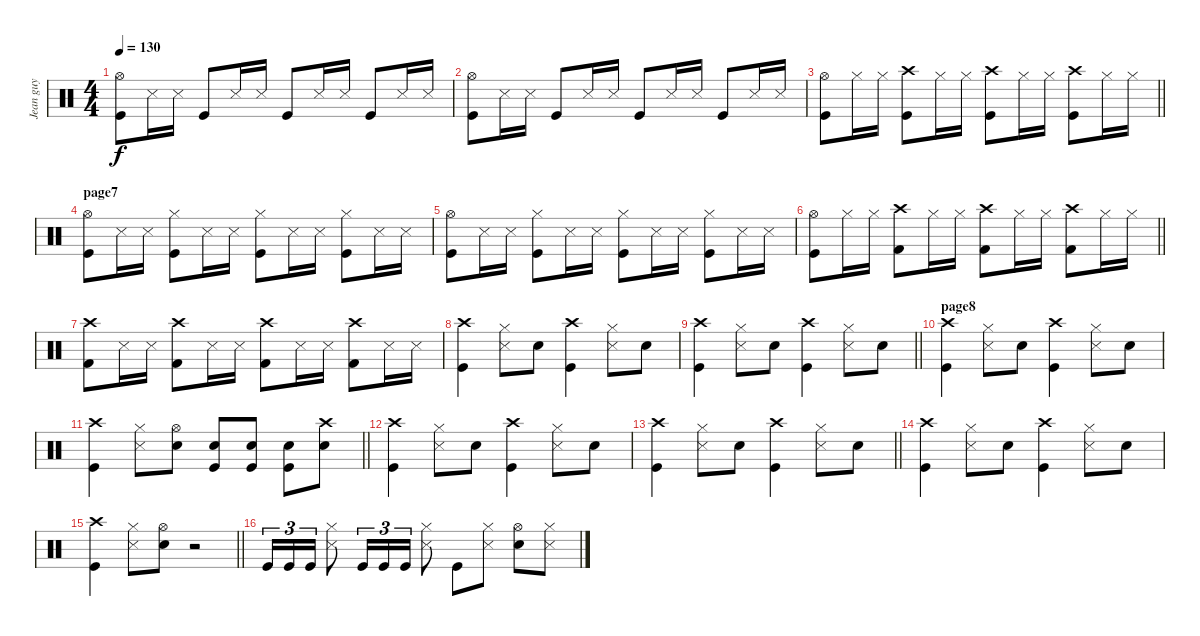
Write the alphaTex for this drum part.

\track ("Jean guy" "Jean guy") {instrument percussion}
\staff {score}
\articulation defaults
\ts (4 4)
\tempo 130
\clef neutral
\ks c
("Hi-Hat (open)" "Kick (hit)").8{dy f} "Snare (side stick) 3".16 "Snare (side stick) 3".16 "Kick (hit)".8 "Snare (side stick) 3".16 "Snare (side stick) 3".16 "Kick (hit)".8 "Snare (side stick) 3".16 "Snare (side stick) 3".16 "Kick (hit)".8 "Snare (side stick) 3".16 "Snare (side stick) 3".16 |
("Hi-Hat (open)" "Kick (hit)").8 "Snare (side stick) 3".16 "Snare (side stick) 3".16 "Kick (hit)".8 "Snare (side stick) 3".16 "Snare (side stick) 3".16 "Kick (hit)".8 "Snare (side stick) 3".16 "Snare (side stick) 3".16 "Kick (hit)".8 "Snare (side stick) 3".16 "Snare (side stick) 3".16 |
\barLineRight lightlight
("Hi-Hat (open)" "Kick (hit)").8 "Hi-Hat (closed)".16 "Hi-Hat (closed)".16 ("Crash high (hit)" "Kick (hit)").8 "Hi-Hat (closed)".16 "Hi-Hat (closed)".16 ("Crash high (hit)" "Kick (hit)").8 "Hi-Hat (closed)".16 "Hi-Hat (closed)".16 ("Crash high (hit)" "Kick (hit)").8 "Hi-Hat (closed)".16 "Hi-Hat (closed)".16 |
\section ("" "page7")
("Hi-Hat (open)" "Kick (hit)").8 "Snare (side stick) 3".16 "Snare (side stick) 3".16 ("Hi-Hat (closed)" "Kick (hit)").8 "Snare (side stick) 3".16 "Snare (side stick) 3".16 ("Hi-Hat (closed)" "Kick (hit)").8 "Snare (side stick) 3".16 "Snare (side stick) 3".16 ("Hi-Hat (closed)" "Kick (hit)").8 "Snare (side stick) 3".16 "Snare (side stick) 3".16 |
("Hi-Hat (open)" "Kick (hit)").8 "Snare (side stick) 3".16 "Snare (side stick) 3".16 ("Hi-Hat (closed)" "Kick (hit)").8 "Snare (side stick) 3".16 "Snare (side stick) 3".16 ("Hi-Hat (closed)" "Kick (hit)").8 "Snare (side stick) 3".16 "Snare (side stick) 3".16 ("Hi-Hat (closed)" "Kick (hit)").8 "Snare (side stick) 3".16 "Snare (side stick) 3".16 |
\barLineRight lightlight
("Hi-Hat (open)" "Kick (hit)").8 "Hi-Hat (closed)".16 "Hi-Hat (closed)".16 ("Crash high (hit)" "Kick (hit) 2").8 "Hi-Hat (closed)".16 "Hi-Hat (closed)".16 ("Crash high (hit)" "Kick (hit) 2").8 "Hi-Hat (closed)".16 "Hi-Hat (closed)".16 ("Crash high (hit)" "Kick (hit) 2").8 "Hi-Hat (closed)".16 "Hi-Hat (closed)".16 |
("Crash high (hit)" "Kick (hit) 2").8 "Snare (side stick) 3".16 "Snare (side stick) 3".16 ("Crash high (hit)" "Kick (hit) 2").8 "Snare (side stick) 3".16 "Snare (side stick) 3".16 ("Crash high (hit)" "Kick (hit) 2").8 "Snare (side stick) 3".16 "Snare (side stick) 3".16 ("Crash high (hit)" "Kick (hit) 2").8 "Snare (side stick) 3".16 "Snare (side stick) 3".16 |
("Crash high (hit)" "Kick (hit)").4 ("Hi-Hat (closed)" "Snare (side stick) 3").8 "Electric Snare (hit)".8 ("Crash high (hit)" "Kick (hit)").4 ("Hi-Hat (closed)" "Snare (side stick) 3").8 "Electric Snare (hit)".8 |
\barLineRight lightlight
("Crash high (hit)" "Kick (hit)").4 ("Hi-Hat (closed)" "Snare (side stick) 3").8 "Electric Snare (hit)".8 ("Crash high (hit)" "Kick (hit)").4 ("Hi-Hat (closed)" "Snare (side stick) 3").8 "Electric Snare (hit)".8 |
\section ("" "page8")
("Crash high (hit)" "Kick (hit)").4 ("Hi-Hat (closed)" "Snare (side stick) 3").8 "Electric Snare (hit)".8 ("Crash high (hit)" "Kick (hit)").4 ("Hi-Hat (closed)" "Snare (side stick) 3").8 "Electric Snare (hit)".8 |
\barLineRight lightlight
("Crash high (hit)" "Kick (hit)").4 ("Hi-Hat (closed)" "Snare (side stick) 3").8 ("Hi-Hat (open)" "Electric Snare (hit)").8 ("Kick (hit)" "Electric Snare (hit)").8 ("Kick (hit)" "Electric Snare (hit)").8 ("Kick (hit)" "Electric Snare (hit)").8 ("Crash high (hit)" "Electric Snare (hit)").8 |
("Crash high (hit)" "Kick (hit)").4 ("Hi-Hat (closed)" "Snare (side stick) 3").8 "Electric Snare (hit)".8 ("Crash high (hit)" "Kick (hit)").4 ("Hi-Hat (closed)" "Snare (side stick) 3").8 "Electric Snare (hit)".8 |
\barLineRight lightlight
("Crash high (hit)" "Kick (hit)").4 ("Hi-Hat (closed)" "Snare (side stick) 3").8 "Electric Snare (hit)".8 ("Crash high (hit)" "Kick (hit)").4 ("Hi-Hat (closed)" "Snare (side stick) 3").8 "Electric Snare (hit)".8 |
("Crash high (hit)" "Kick (hit)").4 ("Hi-Hat (closed)" "Snare (side stick) 3").8 "Electric Snare (hit)".8 ("Crash high (hit)" "Kick (hit)").4 ("Hi-Hat (closed)" "Snare (side stick) 3").8 "Electric Snare (hit)".8 |
\barLineRight lightlight
("Crash high (hit)" "Kick (hit)").4 ("Hi-Hat (closed)" "Snare (side stick) 3").8 ("Hi-Hat (open)" "Electric Snare (hit)").8 r.2 |
"Kick (hit)".16{tu (3 2)} "Kick (hit)".16{tu (3 2)} "Kick (hit)".16{tu (3 2)} ("Hi-Hat (closed)" "Snare (side stick) 3").8 "Kick (hit)".16{tu (3 2)} "Kick (hit)".16{tu (3 2)} "Kick (hit)".16{tu (3 2)} ("Hi-Hat (closed)" "Snare (side stick) 3").8 "Kick (hit)".8 ("Hi-Hat (closed)" "Snare (side stick) 3").8 ("Hi-Hat (open)" "Electric Snare (hit)").8 ("Hi-Hat (closed)" "Snare (side stick) 3").8
